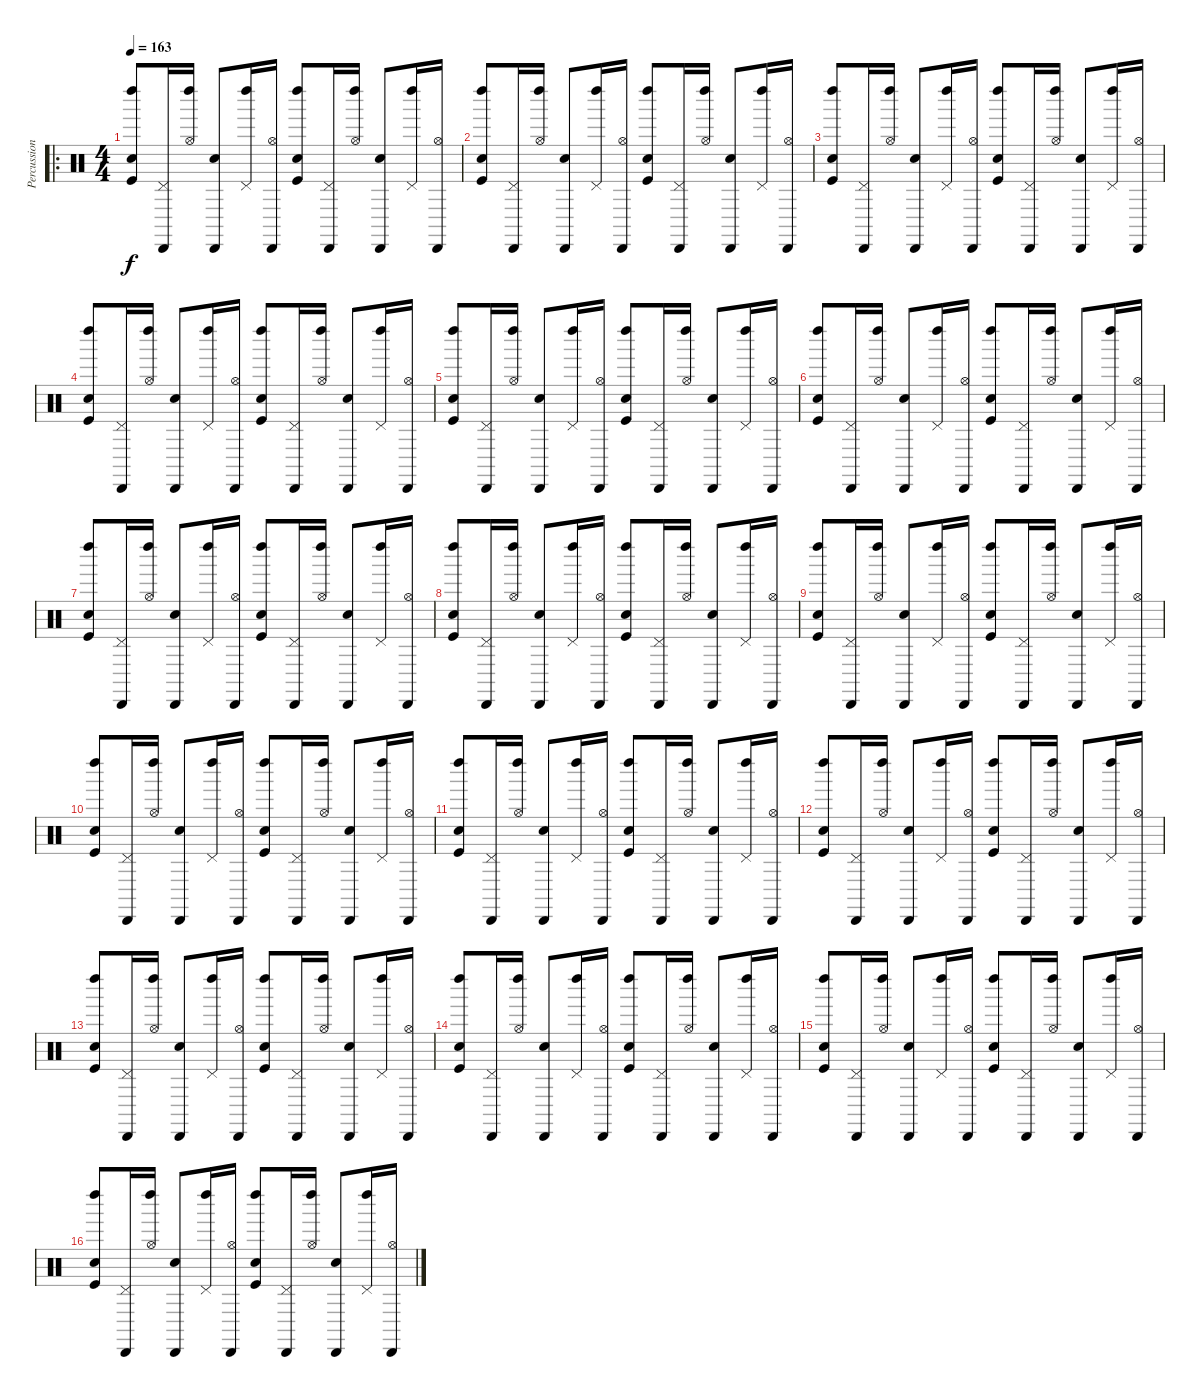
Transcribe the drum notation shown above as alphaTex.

\track ("Percussion" "Percussion") {instrument percussion}
\staff {score}
\articulation defaults
\ro
\ts (4 4)
\tempo 163
\clef neutral
\ks c
("Left Maraca (hit)" "Snare (hit) 2" "Kick (hit)").8{dy f} ("Cabasa (hit)" "Pedal Hi-Hat (hit)").16 ("Left Maraca (hit)" "Hi-Hat (open)").16 ("Cabasa (hit)" "Snare (hit) 2").8 ("Left Maraca (hit)" "Pedal Hi-Hat (hit)").16 ("Cabasa (hit)" "Hi-Hat (open)").16 ("Left Maraca (hit)" "Snare (hit) 2" "Kick (hit)").8 ("Cabasa (hit)" "Pedal Hi-Hat (hit)").16 ("Left Maraca (hit)" "Hi-Hat (open)").16 ("Cabasa (hit)" "Snare (hit) 2").8 ("Left Maraca (hit)" "Pedal Hi-Hat (hit)").16 ("Cabasa (hit)" "Hi-Hat (open)").16 |
("Left Maraca (hit)" "Snare (hit) 2" "Kick (hit)").8 ("Cabasa (hit)" "Pedal Hi-Hat (hit)").16 ("Left Maraca (hit)" "Hi-Hat (open)").16 ("Cabasa (hit)" "Snare (hit) 2").8 ("Left Maraca (hit)" "Pedal Hi-Hat (hit)").16 ("Cabasa (hit)" "Hi-Hat (open)").16 ("Left Maraca (hit)" "Snare (hit) 2" "Kick (hit)").8 ("Cabasa (hit)" "Pedal Hi-Hat (hit)").16 ("Left Maraca (hit)" "Hi-Hat (open)").16 ("Cabasa (hit)" "Snare (hit) 2").8 ("Left Maraca (hit)" "Pedal Hi-Hat (hit)").16 ("Cabasa (hit)" "Hi-Hat (open)").16 |
("Left Maraca (hit)" "Snare (hit) 2" "Kick (hit)").8 ("Cabasa (hit)" "Pedal Hi-Hat (hit)").16 ("Left Maraca (hit)" "Hi-Hat (open)").16 ("Cabasa (hit)" "Snare (hit) 2").8 ("Left Maraca (hit)" "Pedal Hi-Hat (hit)").16 ("Cabasa (hit)" "Hi-Hat (open)").16 ("Left Maraca (hit)" "Snare (hit) 2" "Kick (hit)").8 ("Cabasa (hit)" "Pedal Hi-Hat (hit)").16 ("Left Maraca (hit)" "Hi-Hat (open)").16 ("Cabasa (hit)" "Snare (hit) 2").8 ("Left Maraca (hit)" "Pedal Hi-Hat (hit)").16 ("Cabasa (hit)" "Hi-Hat (open)").16 |
("Left Maraca (hit)" "Snare (hit) 2" "Kick (hit)").8 ("Cabasa (hit)" "Pedal Hi-Hat (hit)").16 ("Left Maraca (hit)" "Hi-Hat (open)").16 ("Cabasa (hit)" "Snare (hit) 2").8 ("Left Maraca (hit)" "Pedal Hi-Hat (hit)").16 ("Cabasa (hit)" "Hi-Hat (open)").16 ("Left Maraca (hit)" "Snare (hit) 2" "Kick (hit)").8 ("Cabasa (hit)" "Pedal Hi-Hat (hit)").16 ("Left Maraca (hit)" "Hi-Hat (open)").16 ("Cabasa (hit)" "Snare (hit) 2").8 ("Left Maraca (hit)" "Pedal Hi-Hat (hit)").16 ("Cabasa (hit)" "Hi-Hat (open)").16 |
("Left Maraca (hit)" "Snare (hit) 2" "Kick (hit)").8 ("Cabasa (hit)" "Pedal Hi-Hat (hit)").16 ("Left Maraca (hit)" "Hi-Hat (open)").16 ("Cabasa (hit)" "Snare (hit) 2").8 ("Left Maraca (hit)" "Pedal Hi-Hat (hit)").16 ("Cabasa (hit)" "Hi-Hat (open)").16 ("Left Maraca (hit)" "Snare (hit) 2" "Kick (hit)").8 ("Cabasa (hit)" "Pedal Hi-Hat (hit)").16 ("Left Maraca (hit)" "Hi-Hat (open)").16 ("Cabasa (hit)" "Snare (hit) 2").8 ("Left Maraca (hit)" "Pedal Hi-Hat (hit)").16 ("Cabasa (hit)" "Hi-Hat (open)").16 |
("Left Maraca (hit)" "Snare (hit) 2" "Kick (hit)").8 ("Cabasa (hit)" "Pedal Hi-Hat (hit)").16 ("Left Maraca (hit)" "Hi-Hat (open)").16 ("Cabasa (hit)" "Snare (hit) 2").8 ("Left Maraca (hit)" "Pedal Hi-Hat (hit)").16 ("Cabasa (hit)" "Hi-Hat (open)").16 ("Left Maraca (hit)" "Snare (hit) 2" "Kick (hit)").8 ("Cabasa (hit)" "Pedal Hi-Hat (hit)").16 ("Left Maraca (hit)" "Hi-Hat (open)").16 ("Cabasa (hit)" "Snare (hit) 2").8 ("Left Maraca (hit)" "Pedal Hi-Hat (hit)").16 ("Cabasa (hit)" "Hi-Hat (open)").16 |
("Left Maraca (hit)" "Snare (hit) 2" "Kick (hit)").8 ("Cabasa (hit)" "Pedal Hi-Hat (hit)").16 ("Left Maraca (hit)" "Hi-Hat (open)").16 ("Cabasa (hit)" "Snare (hit) 2").8 ("Left Maraca (hit)" "Pedal Hi-Hat (hit)").16 ("Cabasa (hit)" "Hi-Hat (open)").16 ("Left Maraca (hit)" "Snare (hit) 2" "Kick (hit)").8 ("Cabasa (hit)" "Pedal Hi-Hat (hit)").16 ("Left Maraca (hit)" "Hi-Hat (open)").16 ("Cabasa (hit)" "Snare (hit) 2").8 ("Left Maraca (hit)" "Pedal Hi-Hat (hit)").16 ("Cabasa (hit)" "Hi-Hat (open)").16 |
("Left Maraca (hit)" "Snare (hit) 2" "Kick (hit)").8 ("Cabasa (hit)" "Pedal Hi-Hat (hit)").16 ("Left Maraca (hit)" "Hi-Hat (open)").16 ("Cabasa (hit)" "Snare (hit) 2").8 ("Left Maraca (hit)" "Pedal Hi-Hat (hit)").16 ("Cabasa (hit)" "Hi-Hat (open)").16 ("Left Maraca (hit)" "Snare (hit) 2" "Kick (hit)").8 ("Cabasa (hit)" "Pedal Hi-Hat (hit)").16 ("Left Maraca (hit)" "Hi-Hat (open)").16 ("Cabasa (hit)" "Snare (hit) 2").8 ("Left Maraca (hit)" "Pedal Hi-Hat (hit)").16 ("Cabasa (hit)" "Hi-Hat (open)").16 |
("Left Maraca (hit)" "Snare (hit) 2" "Kick (hit)").8 ("Cabasa (hit)" "Pedal Hi-Hat (hit)").16 ("Left Maraca (hit)" "Hi-Hat (open)").16 ("Cabasa (hit)" "Snare (hit) 2").8 ("Left Maraca (hit)" "Pedal Hi-Hat (hit)").16 ("Cabasa (hit)" "Hi-Hat (open)").16 ("Left Maraca (hit)" "Snare (hit) 2" "Kick (hit)").8 ("Cabasa (hit)" "Pedal Hi-Hat (hit)").16 ("Left Maraca (hit)" "Hi-Hat (open)").16 ("Cabasa (hit)" "Snare (hit) 2").8 ("Left Maraca (hit)" "Pedal Hi-Hat (hit)").16 ("Cabasa (hit)" "Hi-Hat (open)").16 |
("Left Maraca (hit)" "Snare (hit) 2" "Kick (hit)").8 ("Cabasa (hit)" "Pedal Hi-Hat (hit)").16 ("Left Maraca (hit)" "Hi-Hat (open)").16 ("Cabasa (hit)" "Snare (hit) 2").8 ("Left Maraca (hit)" "Pedal Hi-Hat (hit)").16 ("Cabasa (hit)" "Hi-Hat (open)").16 ("Left Maraca (hit)" "Snare (hit) 2" "Kick (hit)").8 ("Cabasa (hit)" "Pedal Hi-Hat (hit)").16 ("Left Maraca (hit)" "Hi-Hat (open)").16 ("Cabasa (hit)" "Snare (hit) 2").8 ("Left Maraca (hit)" "Pedal Hi-Hat (hit)").16 ("Cabasa (hit)" "Hi-Hat (open)").16 |
("Left Maraca (hit)" "Snare (hit) 2" "Kick (hit)").8 ("Cabasa (hit)" "Pedal Hi-Hat (hit)").16 ("Left Maraca (hit)" "Hi-Hat (open)").16 ("Cabasa (hit)" "Snare (hit) 2").8 ("Left Maraca (hit)" "Pedal Hi-Hat (hit)").16 ("Cabasa (hit)" "Hi-Hat (open)").16 ("Left Maraca (hit)" "Snare (hit) 2" "Kick (hit)").8 ("Cabasa (hit)" "Pedal Hi-Hat (hit)").16 ("Left Maraca (hit)" "Hi-Hat (open)").16 ("Cabasa (hit)" "Snare (hit) 2").8 ("Left Maraca (hit)" "Pedal Hi-Hat (hit)").16 ("Cabasa (hit)" "Hi-Hat (open)").16 |
("Left Maraca (hit)" "Snare (hit) 2" "Kick (hit)").8 ("Cabasa (hit)" "Pedal Hi-Hat (hit)").16 ("Left Maraca (hit)" "Hi-Hat (open)").16 ("Cabasa (hit)" "Snare (hit) 2").8 ("Left Maraca (hit)" "Pedal Hi-Hat (hit)").16 ("Cabasa (hit)" "Hi-Hat (open)").16 ("Left Maraca (hit)" "Snare (hit) 2" "Kick (hit)").8 ("Cabasa (hit)" "Pedal Hi-Hat (hit)").16 ("Left Maraca (hit)" "Hi-Hat (open)").16 ("Cabasa (hit)" "Snare (hit) 2").8 ("Left Maraca (hit)" "Pedal Hi-Hat (hit)").16 ("Cabasa (hit)" "Hi-Hat (open)").16 |
("Left Maraca (hit)" "Snare (hit) 2" "Kick (hit)").8 ("Cabasa (hit)" "Pedal Hi-Hat (hit)").16 ("Left Maraca (hit)" "Hi-Hat (open)").16 ("Cabasa (hit)" "Snare (hit) 2").8 ("Left Maraca (hit)" "Pedal Hi-Hat (hit)").16 ("Cabasa (hit)" "Hi-Hat (open)").16 ("Left Maraca (hit)" "Snare (hit) 2" "Kick (hit)").8 ("Cabasa (hit)" "Pedal Hi-Hat (hit)").16 ("Left Maraca (hit)" "Hi-Hat (open)").16 ("Cabasa (hit)" "Snare (hit) 2").8 ("Left Maraca (hit)" "Pedal Hi-Hat (hit)").16 ("Cabasa (hit)" "Hi-Hat (open)").16 |
("Left Maraca (hit)" "Snare (hit) 2" "Kick (hit)").8 ("Cabasa (hit)" "Pedal Hi-Hat (hit)").16 ("Left Maraca (hit)" "Hi-Hat (open)").16 ("Cabasa (hit)" "Snare (hit) 2").8 ("Left Maraca (hit)" "Pedal Hi-Hat (hit)").16 ("Cabasa (hit)" "Hi-Hat (open)").16 ("Left Maraca (hit)" "Snare (hit) 2" "Kick (hit)").8 ("Cabasa (hit)" "Pedal Hi-Hat (hit)").16 ("Left Maraca (hit)" "Hi-Hat (open)").16 ("Cabasa (hit)" "Snare (hit) 2").8 ("Left Maraca (hit)" "Pedal Hi-Hat (hit)").16 ("Cabasa (hit)" "Hi-Hat (open)").16 |
("Left Maraca (hit)" "Snare (hit) 2" "Kick (hit)").8 ("Cabasa (hit)" "Pedal Hi-Hat (hit)").16 ("Left Maraca (hit)" "Hi-Hat (open)").16 ("Cabasa (hit)" "Snare (hit) 2").8 ("Left Maraca (hit)" "Pedal Hi-Hat (hit)").16 ("Cabasa (hit)" "Hi-Hat (open)").16 ("Left Maraca (hit)" "Snare (hit) 2" "Kick (hit)").8 ("Cabasa (hit)" "Pedal Hi-Hat (hit)").16 ("Left Maraca (hit)" "Hi-Hat (open)").16 ("Cabasa (hit)" "Snare (hit) 2").8 ("Left Maraca (hit)" "Pedal Hi-Hat (hit)").16 ("Cabasa (hit)" "Hi-Hat (open)").16 |
("Left Maraca (hit)" "Snare (hit) 2" "Kick (hit)").8 ("Cabasa (hit)" "Pedal Hi-Hat (hit)").16 ("Left Maraca (hit)" "Hi-Hat (open)").16 ("Cabasa (hit)" "Snare (hit) 2").8 ("Left Maraca (hit)" "Pedal Hi-Hat (hit)").16 ("Cabasa (hit)" "Hi-Hat (open)").16 ("Left Maraca (hit)" "Snare (hit) 2" "Kick (hit)").8 ("Cabasa (hit)" "Pedal Hi-Hat (hit)").16 ("Left Maraca (hit)" "Hi-Hat (open)").16 ("Cabasa (hit)" "Snare (hit) 2").8 ("Left Maraca (hit)" "Pedal Hi-Hat (hit)").16 ("Cabasa (hit)" "Hi-Hat (open)").16
